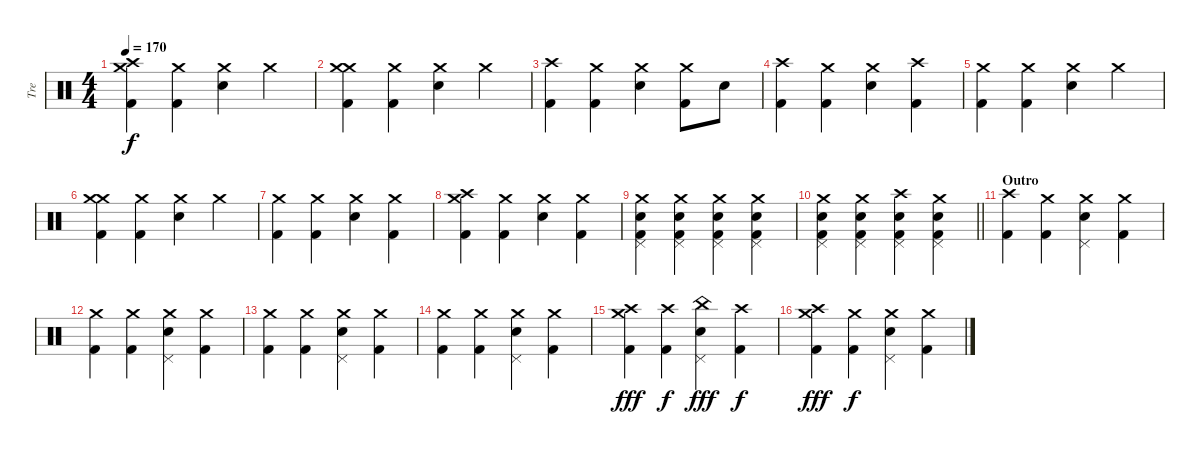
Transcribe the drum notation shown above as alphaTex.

\track ("Tre" "Tre") {instrument percussion}
\staff {score}
\articulation defaults
\ts (4 4)
\tempo 170
\clef neutral
\ks c
("Crash medium (hit)" "Crash high (hit)" "Kick (hit) 2").4{dy f} ("Crash medium (hit)" "Kick (hit) 2").4 ("Crash medium (hit)" "Snare (hit) 2").4 "Crash medium (hit)".4 |
("Crash medium (hit)" "Crash medium (hit)" "Kick (hit) 2").4 ("Crash medium (hit)" "Kick (hit) 2").4 ("Crash medium (hit)" "Snare (hit) 2").4 "Crash medium (hit)".4 |
("Crash high (hit)" "Kick (hit) 2").4 ("Crash medium (hit)" "Kick (hit) 2").4 ("Crash medium (hit)" "Snare (hit) 2").4 ("Crash medium (hit)" "Kick (hit) 2").8 "Snare (hit) 2".8 |
("Crash high (hit)" "Kick (hit) 2").4 ("Crash medium (hit)" "Kick (hit) 2").4 ("Crash medium (hit)" "Snare (hit) 2").4 ("Crash high (hit)" "Kick (hit) 2").4 |
("Crash medium (hit)" "Kick (hit) 2").4 ("Crash medium (hit)" "Kick (hit) 2").4 ("Crash medium (hit)" "Snare (hit) 2").4 "Crash medium (hit)".4 |
("Crash medium (hit)" "Crash medium (hit)" "Kick (hit) 2").4 ("Crash medium (hit)" "Kick (hit) 2").4 ("Crash medium (hit)" "Snare (hit) 2").4 "Crash medium (hit)".4 |
("Crash medium (hit)" "Kick (hit) 2").4 ("Crash medium (hit)" "Kick (hit) 2").4 ("Crash medium (hit)" "Snare (hit) 2").4 ("Crash medium (hit)" "Kick (hit) 2").4 |
("Crash medium (hit)" "Crash high (hit)" "Kick (hit) 2").4 ("Crash medium (hit)" "Kick (hit) 2").4 ("Crash medium (hit)" "Snare (hit) 2").4 ("Crash medium (hit)" "Kick (hit) 2").4 |
("Crash medium (hit)" "Snare (hit) 2" "Pedal Hi-Hat (hit)" "Kick (hit) 2").4 ("Crash medium (hit)" "Snare (hit) 2" "Pedal Hi-Hat (hit)" "Kick (hit) 2").4 ("Crash medium (hit)" "Snare (hit) 2" "Pedal Hi-Hat (hit)" "Kick (hit) 2").4 ("Crash medium (hit)" "Snare (hit) 2" "Pedal Hi-Hat (hit)" "Kick (hit) 2").4 |
\barLineRight lightlight
("Crash medium (hit)" "Snare (hit) 2" "Pedal Hi-Hat (hit)" "Kick (hit) 2").4 ("Crash medium (hit)" "Snare (hit) 2" "Pedal Hi-Hat (hit)" "Kick (hit) 2").4 ("Crash high (hit)" "Snare (hit) 2" "Pedal Hi-Hat (hit)" "Kick (hit) 2").4 ("Crash medium (hit)" "Snare (hit) 2" "Pedal Hi-Hat (hit)" "Kick (hit) 2").4 |
\section ("" "Outro")
("Crash high (hit)" "Kick (hit) 2").4 ("Crash medium (hit)" "Kick (hit) 2").4 ("Crash medium (hit)" "Snare (hit) 2" "Pedal Hi-Hat (hit)").4 ("Crash medium (hit)" "Kick (hit) 2").4 |
("Crash medium (hit)" "Kick (hit) 2").4 ("Crash medium (hit)" "Kick (hit) 2").4 ("Crash medium (hit)" "Snare (hit) 2" "Pedal Hi-Hat (hit)").4 ("Crash medium (hit)" "Kick (hit) 2").4 |
("Crash medium (hit)" "Kick (hit) 2").4 ("Crash medium (hit)" "Kick (hit) 2").4 ("Crash medium (hit)" "Snare (hit) 2" "Pedal Hi-Hat (hit)").4 ("Crash medium (hit)" "Kick (hit) 2").4 |
("Crash medium (hit)" "Kick (hit) 2").4 ("Crash medium (hit)" "Kick (hit) 2").4 ("Crash medium (hit)" "Snare (hit) 2" "Pedal Hi-Hat (hit)").4 ("Crash medium (hit)" "Kick (hit) 2").4 |
("Crash medium (hit)" "Crash high (hit)" "Kick (hit) 2").4{dy fff} ("Crash high (hit)" "Kick (hit) 2").4{dy f} ("China (hit)" "Snare (hit) 2" "Pedal Hi-Hat (hit)").4{dy fff} ("Crash high (hit)" "Kick (hit) 2").4{dy f} |
("Crash medium (hit)" "Crash high (hit)" "Kick (hit) 2").4{dy fff} ("Crash medium (hit)" "Kick (hit) 2").4{dy f} ("Crash medium (hit)" "Snare (hit) 2" "Pedal Hi-Hat (hit)").4 ("Crash medium (hit)" "Kick (hit) 2").4
